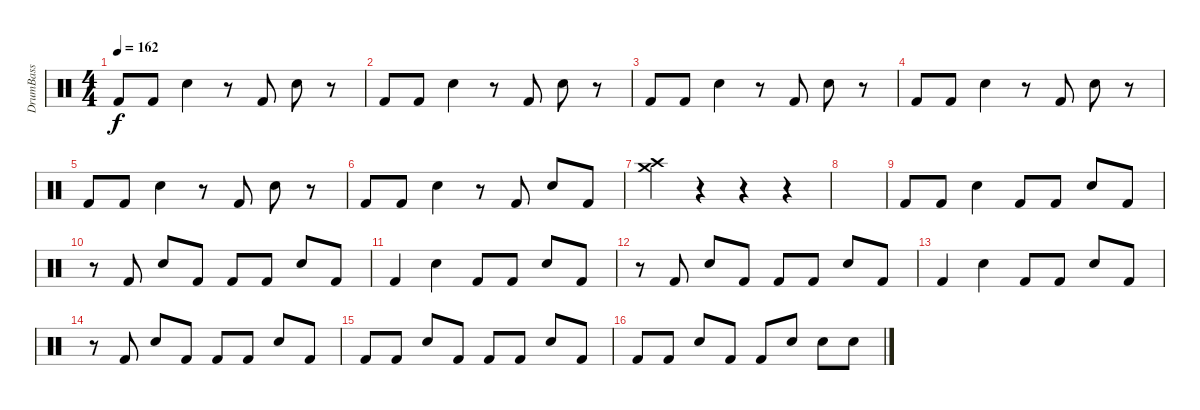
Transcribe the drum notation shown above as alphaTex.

\track ("DrumBass" "DrumBass") {instrument percussion}
\staff {score}
\articulation defaults
\ts (4 4)
\tempo 162
\clef neutral
\ks c "Kick (hit) 2".8{dy f} "Kick (hit) 2".8 "Snare (hit) 2".4
r.8 "Kick (hit) 2".8 "Snare (hit) 2".8 r.8 |
"Kick (hit) 2".8 "Kick (hit) 2".8 "Snare (hit) 2".4 r.8 "Kick (hit) 2".8 "Snare (hit) 2".8 r.8 |
"Kick (hit) 2".8 "Kick (hit) 2".8 "Snare (hit) 2".4 r.8 "Kick (hit) 2".8 "Snare (hit) 2".8 r.8 |
"Kick (hit) 2".8 "Kick (hit) 2".8 "Snare (hit) 2".4 r.8 "Kick (hit) 2".8 "Snare (hit) 2".8 r.8 |
"Kick (hit) 2".8 "Kick (hit) 2".8 "Snare (hit) 2".4 r.8 "Kick (hit) 2".8 "Snare (hit) 2".8 r.8 |
"Kick (hit) 2".8 "Kick (hit) 2".8 "Snare (hit) 2".4 r.8 "Kick (hit) 2".8 "Snare (hit) 2".8 "Kick (hit) 2".8 |
("Crash medium (hit)" "Crash high (hit)").4 r.4 r.4 r.4 |
|
"Kick (hit) 2".8 "Kick (hit) 2".8 "Snare (hit) 2".4 "Kick (hit) 2".8 "Kick (hit) 2".8 "Snare (hit) 2".8 "Kick (hit) 2".8 |
r.8 "Kick (hit) 2".8 "Snare (hit) 2".8 "Kick (hit) 2".8 "Kick (hit) 2".8 "Kick (hit) 2".8 "Snare (hit) 2".8 "Kick (hit) 2".8 |
"Kick (hit) 2".4 "Snare (hit) 2".4 "Kick (hit) 2".8 "Kick (hit) 2".8 "Snare (hit) 2".8 "Kick (hit) 2".8 |
r.8 "Kick (hit) 2".8 "Snare (hit) 2".8 "Kick (hit) 2".8 "Kick (hit) 2".8 "Kick (hit) 2".8 "Snare (hit) 2".8 "Kick (hit) 2".8 |
"Kick (hit) 2".4 "Snare (hit) 2".4 "Kick (hit) 2".8 "Kick (hit) 2".8 "Snare (hit) 2".8 "Kick (hit) 2".8 |
r.8 "Kick (hit) 2".8 "Snare (hit) 2".8 "Kick (hit) 2".8 "Kick (hit) 2".8 "Kick (hit) 2".8 "Snare (hit) 2".8 "Kick (hit) 2".8 |
"Kick (hit) 2".8 "Kick (hit) 2".8 "Snare (hit) 2".8 "Kick (hit) 2".8 "Kick (hit) 2".8 "Kick (hit) 2".8 "Snare (hit) 2".8 "Kick (hit) 2".8 |
"Kick (hit) 2".8 "Kick (hit) 2".8 "Snare (hit) 2".8 "Kick (hit) 2".8 "Kick (hit) 2".8 "Snare (hit) 2"{tr (38 16)}.8 "Snare (hit) 2"{tr (38 16)}.8 "Snare (hit) 2"{tr (38 16)}.8
